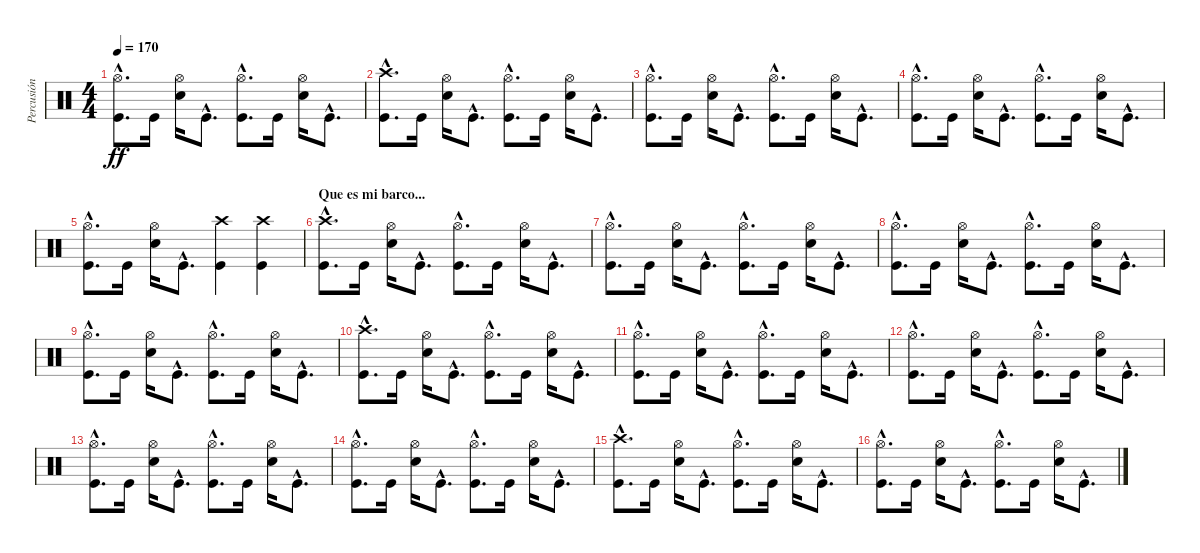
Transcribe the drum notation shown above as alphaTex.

\track ("Percusión" "Percusión") {instrument percussion}
\staff {score}
\articulation defaults
\ts (4 4)
\tempo 170
\clef neutral
\ks c
("Hi-Hat (open)"{hac} "Kick (hit)"{hac}).8{d dy ff} "Kick (hit)".16 ("Hi-Hat (open)" "Snare (hit) 2").16 "Kick (hit)"{hac}.8{d} ("Hi-Hat (open)"{hac} "Kick (hit)"{hac}).8{d} "Kick (hit)".16 ("Hi-Hat (open)" "Snare (hit) 2").16 "Kick (hit)"{hac}.8{d} |
("Crash high (hit)"{hac} "Kick (hit)"{hac}).8{d} "Kick (hit)".16 ("Hi-Hat (open)" "Snare (hit) 2").16 "Kick (hit)"{hac}.8{d} ("Hi-Hat (open)"{hac} "Kick (hit)"{hac}).8{d} "Kick (hit)".16 ("Hi-Hat (open)" "Snare (hit) 2").16 "Kick (hit)"{hac}.8{d} |
("Hi-Hat (open)"{hac} "Kick (hit)"{hac}).8{d} "Kick (hit)".16 ("Hi-Hat (open)" "Snare (hit) 2").16 "Kick (hit)"{hac}.8{d} ("Hi-Hat (open)"{hac} "Kick (hit)"{hac}).8{d} "Kick (hit)".16 ("Hi-Hat (open)" "Snare (hit) 2").16 "Kick (hit)"{hac}.8{d} |
("Hi-Hat (open)"{hac} "Kick (hit)"{hac}).8{d} "Kick (hit)".16 ("Hi-Hat (open)" "Snare (hit) 2").16 "Kick (hit)"{hac}.8{d} ("Hi-Hat (open)"{hac} "Kick (hit)"{hac}).8{d} "Kick (hit)".16 ("Hi-Hat (open)" "Snare (hit) 2").16 "Kick (hit)"{hac}.8{d} |
("Hi-Hat (open)"{hac} "Kick (hit)"{hac}).8{d} "Kick (hit)".16 ("Hi-Hat (open)" "Snare (hit) 2").16 "Kick (hit)"{hac}.8{d} ("Crash high (hit)" "Kick (hit)").4 ("Crash high (hit)" "Kick (hit)").4 |
\section ("" "Que es mi barco...")
("Crash high (hit)"{hac} "Kick (hit)"{hac}).8{d} "Kick (hit)".16 ("Hi-Hat (open)" "Snare (hit) 2").16 "Kick (hit)"{hac}.8{d} ("Hi-Hat (open)"{hac} "Kick (hit)"{hac}).8{d} "Kick (hit)".16 ("Hi-Hat (open)" "Snare (hit) 2").16 "Kick (hit)"{hac}.8{d} |
("Hi-Hat (open)"{hac} "Kick (hit)"{hac}).8{d} "Kick (hit)".16 ("Hi-Hat (open)" "Snare (hit) 2").16 "Kick (hit)"{hac}.8{d} ("Hi-Hat (open)"{hac} "Kick (hit)"{hac}).8{d} "Kick (hit)".16 ("Hi-Hat (open)" "Snare (hit) 2").16 "Kick (hit)"{hac}.8{d} |
("Hi-Hat (open)"{hac} "Kick (hit)"{hac}).8{d} "Kick (hit)".16 ("Hi-Hat (open)" "Snare (hit) 2").16 "Kick (hit)"{hac}.8{d} ("Hi-Hat (open)"{hac} "Kick (hit)"{hac}).8{d} "Kick (hit)".16 ("Hi-Hat (open)" "Snare (hit) 2").16 "Kick (hit)"{hac}.8{d} |
("Hi-Hat (open)"{hac} "Kick (hit)"{hac}).8{d} "Kick (hit)".16 ("Hi-Hat (open)" "Snare (hit) 2").16 "Kick (hit)"{hac}.8{d} ("Hi-Hat (open)"{hac} "Kick (hit)"{hac}).8{d} "Kick (hit)".16 ("Hi-Hat (open)" "Snare (hit) 2").16 "Kick (hit)"{hac}.8{d} |
("Crash high (hit)"{hac} "Kick (hit)"{hac}).8{d} "Kick (hit)".16 ("Hi-Hat (open)" "Snare (hit) 2").16 "Kick (hit)"{hac}.8{d} ("Hi-Hat (open)"{hac} "Kick (hit)"{hac}).8{d} "Kick (hit)".16 ("Hi-Hat (open)" "Snare (hit) 2").16 "Kick (hit)"{hac}.8{d} |
("Hi-Hat (open)"{hac} "Kick (hit)"{hac}).8{d} "Kick (hit)".16 ("Hi-Hat (open)" "Snare (hit) 2").16 "Kick (hit)"{hac}.8{d} ("Hi-Hat (open)"{hac} "Kick (hit)"{hac}).8{d} "Kick (hit)".16 ("Hi-Hat (open)" "Snare (hit) 2").16 "Kick (hit)"{hac}.8{d} |
("Hi-Hat (open)"{hac} "Kick (hit)"{hac}).8{d} "Kick (hit)".16 ("Hi-Hat (open)" "Snare (hit) 2").16 "Kick (hit)"{hac}.8{d} ("Hi-Hat (open)"{hac} "Kick (hit)"{hac}).8{d} "Kick (hit)".16 ("Hi-Hat (open)" "Snare (hit) 2").16 "Kick (hit)"{hac}.8{d} |
("Hi-Hat (open)"{hac} "Kick (hit)"{hac}).8{d} "Kick (hit)".16 ("Hi-Hat (open)" "Snare (hit) 2").16 "Kick (hit)"{hac}.8{d} ("Hi-Hat (open)"{hac} "Kick (hit)"{hac}).8{d} "Kick (hit)".16 ("Hi-Hat (open)" "Snare (hit) 2").16 "Kick (hit)"{hac}.8{d} |
("Hi-Hat (open)"{hac} "Kick (hit)"{hac}).8{d} "Kick (hit)".16 ("Hi-Hat (open)" "Snare (hit) 2").16 "Kick (hit)"{hac}.8{d} ("Hi-Hat (open)"{hac} "Kick (hit)"{hac}).8{d} "Kick (hit)".16 ("Hi-Hat (open)" "Snare (hit) 2").16 "Kick (hit)"{hac}.8{d} |
("Crash high (hit)"{hac} "Kick (hit)"{hac}).8{d} "Kick (hit)".16 ("Hi-Hat (open)" "Snare (hit) 2").16 "Kick (hit)"{hac}.8{d} ("Hi-Hat (open)"{hac} "Kick (hit)"{hac}).8{d} "Kick (hit)".16 ("Hi-Hat (open)" "Snare (hit) 2").16 "Kick (hit)"{hac}.8{d} |
("Hi-Hat (open)"{hac} "Kick (hit)"{hac}).8{d} "Kick (hit)".16 ("Hi-Hat (open)" "Snare (hit) 2").16 "Kick (hit)"{hac}.8{d} ("Hi-Hat (open)"{hac} "Kick (hit)"{hac}).8{d} "Kick (hit)".16 ("Hi-Hat (open)" "Snare (hit) 2").16 "Kick (hit)"{hac}.8{d}
